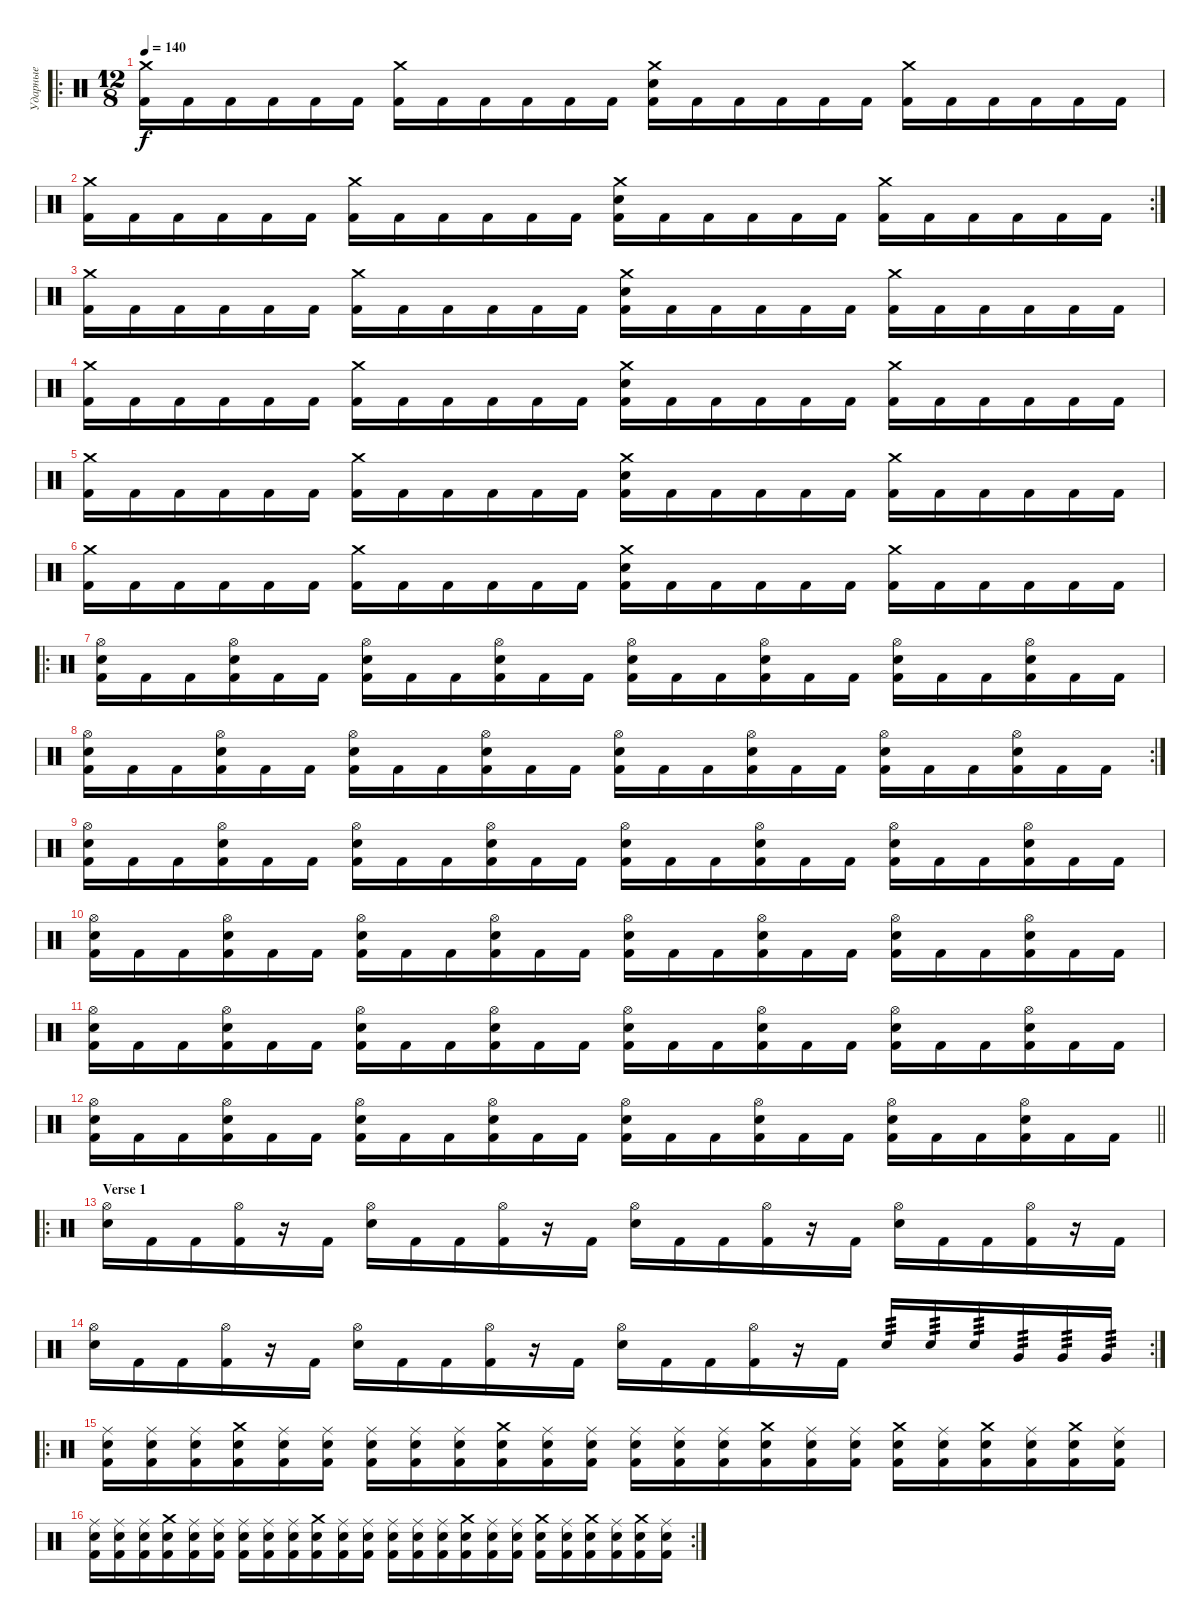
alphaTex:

\track ("Ударные" "Ударные") {instrument percussion}
\staff {score}
\articulation defaults
\ro
\ts (12 8)
\tempo 140
\clef neutral
\ks c
("Crash medium (hit)" "Kick (hit) 2").16{dy f} "Kick (hit) 2".16 "Kick (hit) 2".16 "Kick (hit) 2".16 "Kick (hit) 2".16 "Kick (hit) 2".16 ("Crash medium (hit)" "Kick (hit) 2").16 "Kick (hit) 2".16 "Kick (hit) 2".16 "Kick (hit) 2".16 "Kick (hit) 2".16 "Kick (hit) 2".16 ("Crash medium (hit)" "Electric Snare (hit)" "Kick (hit) 2").16 "Kick (hit) 2".16 "Kick (hit) 2".16 "Kick (hit) 2".16 "Kick (hit) 2".16 "Kick (hit) 2".16 ("Crash medium (hit)" "Kick (hit) 2").16 "Kick (hit) 2".16 "Kick (hit) 2".16 "Kick (hit) 2".16 "Kick (hit) 2".16 "Kick (hit) 2".16 |
\rc 2
("Crash medium (hit)" "Kick (hit) 2").16 "Kick (hit) 2".16 "Kick (hit) 2".16 "Kick (hit) 2".16 "Kick (hit) 2".16 "Kick (hit) 2".16 ("Crash medium (hit)" "Kick (hit) 2").16 "Kick (hit) 2".16 "Kick (hit) 2".16 "Kick (hit) 2".16 "Kick (hit) 2".16 "Kick (hit) 2".16 ("Crash medium (hit)" "Electric Snare (hit)" "Kick (hit) 2").16 "Kick (hit) 2".16 "Kick (hit) 2".16 "Kick (hit) 2".16 "Kick (hit) 2".16 "Kick (hit) 2".16 ("Crash medium (hit)" "Kick (hit) 2").16 "Kick (hit) 2".16 "Kick (hit) 2".16 "Kick (hit) 2".16 "Kick (hit) 2".16 "Kick (hit) 2".16 |
("Crash medium (hit)" "Kick (hit) 2").16 "Kick (hit) 2".16 "Kick (hit) 2".16 "Kick (hit) 2".16 "Kick (hit) 2".16 "Kick (hit) 2".16 ("Crash medium (hit)" "Kick (hit) 2").16 "Kick (hit) 2".16 "Kick (hit) 2".16 "Kick (hit) 2".16 "Kick (hit) 2".16 "Kick (hit) 2".16 ("Crash medium (hit)" "Electric Snare (hit)" "Kick (hit) 2").16 "Kick (hit) 2".16 "Kick (hit) 2".16 "Kick (hit) 2".16 "Kick (hit) 2".16 "Kick (hit) 2".16 ("Crash medium (hit)" "Kick (hit) 2").16 "Kick (hit) 2".16 "Kick (hit) 2".16 "Kick (hit) 2".16 "Kick (hit) 2".16 "Kick (hit) 2".16 |
("Crash medium (hit)" "Kick (hit) 2").16 "Kick (hit) 2".16 "Kick (hit) 2".16 "Kick (hit) 2".16 "Kick (hit) 2".16 "Kick (hit) 2".16 ("Crash medium (hit)" "Kick (hit) 2").16 "Kick (hit) 2".16 "Kick (hit) 2".16 "Kick (hit) 2".16 "Kick (hit) 2".16 "Kick (hit) 2".16 ("Crash medium (hit)" "Electric Snare (hit)" "Kick (hit) 2").16 "Kick (hit) 2".16 "Kick (hit) 2".16 "Kick (hit) 2".16 "Kick (hit) 2".16 "Kick (hit) 2".16 ("Crash medium (hit)" "Kick (hit) 2").16 "Kick (hit) 2".16 "Kick (hit) 2".16 "Kick (hit) 2".16 "Kick (hit) 2".16 "Kick (hit) 2".16 |
("Crash medium (hit)" "Kick (hit) 2").16 "Kick (hit) 2".16 "Kick (hit) 2".16 "Kick (hit) 2".16 "Kick (hit) 2".16 "Kick (hit) 2".16 ("Crash medium (hit)" "Kick (hit) 2").16 "Kick (hit) 2".16 "Kick (hit) 2".16 "Kick (hit) 2".16 "Kick (hit) 2".16 "Kick (hit) 2".16 ("Crash medium (hit)" "Electric Snare (hit)" "Kick (hit) 2").16 "Kick (hit) 2".16 "Kick (hit) 2".16 "Kick (hit) 2".16 "Kick (hit) 2".16 "Kick (hit) 2".16 ("Crash medium (hit)" "Kick (hit) 2").16 "Kick (hit) 2".16 "Kick (hit) 2".16 "Kick (hit) 2".16 "Kick (hit) 2".16 "Kick (hit) 2".16 |
("Crash medium (hit)" "Kick (hit) 2").16 "Kick (hit) 2".16 "Kick (hit) 2".16 "Kick (hit) 2".16 "Kick (hit) 2".16 "Kick (hit) 2".16 ("Crash medium (hit)" "Kick (hit) 2").16 "Kick (hit) 2".16 "Kick (hit) 2".16 "Kick (hit) 2".16 "Kick (hit) 2".16 "Kick (hit) 2".16 ("Crash medium (hit)" "Electric Snare (hit)" "Kick (hit) 2").16 "Kick (hit) 2".16 "Kick (hit) 2".16 "Kick (hit) 2".16 "Kick (hit) 2".16 "Kick (hit) 2".16 ("Crash medium (hit)" "Kick (hit) 2").16 "Kick (hit) 2".16 "Kick (hit) 2".16 "Kick (hit) 2".16 "Kick (hit) 2".16 "Kick (hit) 2".16 |
\ro
("Hi-Hat (open)" "Electric Snare (hit)" "Kick (hit) 2").16 "Kick (hit) 2".16 "Kick (hit) 2".16 ("Hi-Hat (open)" "Electric Snare (hit)" "Kick (hit) 2").16 "Kick (hit) 2".16 "Kick (hit) 2".16 ("Hi-Hat (open)" "Electric Snare (hit)" "Kick (hit) 2").16 "Kick (hit) 2".16 "Kick (hit) 2".16 ("Hi-Hat (open)" "Electric Snare (hit)" "Kick (hit) 2").16 "Kick (hit) 2".16 "Kick (hit) 2".16 ("Hi-Hat (open)" "Electric Snare (hit)" "Kick (hit) 2").16 "Kick (hit) 2".16 "Kick (hit) 2".16 ("Hi-Hat (open)" "Electric Snare (hit)" "Kick (hit) 2").16 "Kick (hit) 2".16 "Kick (hit) 2".16 ("Hi-Hat (open)" "Electric Snare (hit)" "Kick (hit) 2").16 "Kick (hit) 2".16 "Kick (hit) 2".16 ("Hi-Hat (open)" "Electric Snare (hit)" "Kick (hit) 2").16 "Kick (hit) 2".16 "Kick (hit) 2".16 |
\rc 2
("Hi-Hat (open)" "Electric Snare (hit)" "Kick (hit) 2").16 "Kick (hit) 2".16 "Kick (hit) 2".16 ("Hi-Hat (open)" "Electric Snare (hit)" "Kick (hit) 2").16 "Kick (hit) 2".16 "Kick (hit) 2".16 ("Hi-Hat (open)" "Electric Snare (hit)" "Kick (hit) 2").16 "Kick (hit) 2".16 "Kick (hit) 2".16 ("Hi-Hat (open)" "Electric Snare (hit)" "Kick (hit) 2").16 "Kick (hit) 2".16 "Kick (hit) 2".16 ("Hi-Hat (open)" "Electric Snare (hit)" "Kick (hit) 2").16 "Kick (hit) 2".16 "Kick (hit) 2".16 ("Hi-Hat (open)" "Electric Snare (hit)" "Kick (hit) 2").16 "Kick (hit) 2".16 "Kick (hit) 2".16 ("Hi-Hat (open)" "Electric Snare (hit)" "Kick (hit) 2").16 "Kick (hit) 2".16 "Kick (hit) 2".16 ("Hi-Hat (open)" "Electric Snare (hit)" "Kick (hit) 2").16 "Kick (hit) 2".16 "Kick (hit) 2".16 |
("Hi-Hat (open)" "Electric Snare (hit)" "Kick (hit) 2").16 "Kick (hit) 2".16 "Kick (hit) 2".16 ("Hi-Hat (open)" "Electric Snare (hit)" "Kick (hit) 2").16 "Kick (hit) 2".16 "Kick (hit) 2".16 ("Hi-Hat (open)" "Electric Snare (hit)" "Kick (hit) 2").16 "Kick (hit) 2".16 "Kick (hit) 2".16 ("Hi-Hat (open)" "Electric Snare (hit)" "Kick (hit) 2").16 "Kick (hit) 2".16 "Kick (hit) 2".16 ("Hi-Hat (open)" "Electric Snare (hit)" "Kick (hit) 2").16 "Kick (hit) 2".16 "Kick (hit) 2".16 ("Hi-Hat (open)" "Electric Snare (hit)" "Kick (hit) 2").16 "Kick (hit) 2".16 "Kick (hit) 2".16 ("Hi-Hat (open)" "Electric Snare (hit)" "Kick (hit) 2").16 "Kick (hit) 2".16 "Kick (hit) 2".16 ("Hi-Hat (open)" "Electric Snare (hit)" "Kick (hit) 2").16 "Kick (hit) 2".16 "Kick (hit) 2".16 |
("Hi-Hat (open)" "Electric Snare (hit)" "Kick (hit) 2").16 "Kick (hit) 2".16 "Kick (hit) 2".16 ("Hi-Hat (open)" "Electric Snare (hit)" "Kick (hit) 2").16 "Kick (hit) 2".16 "Kick (hit) 2".16 ("Hi-Hat (open)" "Electric Snare (hit)" "Kick (hit) 2").16 "Kick (hit) 2".16 "Kick (hit) 2".16 ("Hi-Hat (open)" "Electric Snare (hit)" "Kick (hit) 2").16 "Kick (hit) 2".16 "Kick (hit) 2".16 ("Hi-Hat (open)" "Electric Snare (hit)" "Kick (hit) 2").16 "Kick (hit) 2".16 "Kick (hit) 2".16 ("Hi-Hat (open)" "Electric Snare (hit)" "Kick (hit) 2").16 "Kick (hit) 2".16 "Kick (hit) 2".16 ("Hi-Hat (open)" "Electric Snare (hit)" "Kick (hit) 2").16 "Kick (hit) 2".16 "Kick (hit) 2".16 ("Hi-Hat (open)" "Electric Snare (hit)" "Kick (hit) 2").16 "Kick (hit) 2".16 "Kick (hit) 2".16 |
("Hi-Hat (open)" "Electric Snare (hit)" "Kick (hit) 2").16 "Kick (hit) 2".16 "Kick (hit) 2".16 ("Hi-Hat (open)" "Electric Snare (hit)" "Kick (hit) 2").16 "Kick (hit) 2".16 "Kick (hit) 2".16 ("Hi-Hat (open)" "Electric Snare (hit)" "Kick (hit) 2").16 "Kick (hit) 2".16 "Kick (hit) 2".16 ("Hi-Hat (open)" "Electric Snare (hit)" "Kick (hit) 2").16 "Kick (hit) 2".16 "Kick (hit) 2".16 ("Hi-Hat (open)" "Electric Snare (hit)" "Kick (hit) 2").16 "Kick (hit) 2".16 "Kick (hit) 2".16 ("Hi-Hat (open)" "Electric Snare (hit)" "Kick (hit) 2").16 "Kick (hit) 2".16 "Kick (hit) 2".16 ("Hi-Hat (open)" "Electric Snare (hit)" "Kick (hit) 2").16 "Kick (hit) 2".16 "Kick (hit) 2".16 ("Hi-Hat (open)" "Electric Snare (hit)" "Kick (hit) 2").16 "Kick (hit) 2".16 "Kick (hit) 2".16 |
\barLineRight lightlight
("Hi-Hat (open)" "Electric Snare (hit)" "Kick (hit) 2").16 "Kick (hit) 2".16 "Kick (hit) 2".16 ("Hi-Hat (open)" "Electric Snare (hit)" "Kick (hit) 2").16 "Kick (hit) 2".16 "Kick (hit) 2".16 ("Hi-Hat (open)" "Electric Snare (hit)" "Kick (hit) 2").16 "Kick (hit) 2".16 "Kick (hit) 2".16 ("Hi-Hat (open)" "Electric Snare (hit)" "Kick (hit) 2").16 "Kick (hit) 2".16 "Kick (hit) 2".16 ("Hi-Hat (open)" "Electric Snare (hit)" "Kick (hit) 2").16 "Kick (hit) 2".16 "Kick (hit) 2".16 ("Hi-Hat (open)" "Electric Snare (hit)" "Kick (hit) 2").16 "Kick (hit) 2".16 "Kick (hit) 2".16 ("Hi-Hat (open)" "Electric Snare (hit)" "Kick (hit) 2").16 "Kick (hit) 2".16 "Kick (hit) 2".16 ("Hi-Hat (open)" "Electric Snare (hit)" "Kick (hit) 2").16 "Kick (hit) 2".16 "Kick (hit) 2".16 |
\ro
\section ("" "Verse 1")
("Hi-Hat (open)" "Electric Snare (hit)").16 "Kick (hit) 2".16 "Kick (hit) 2".16 ("Hi-Hat (open)" "Kick (hit) 2").16 r.16 "Kick (hit) 2".16 ("Hi-Hat (open)" "Electric Snare (hit)").16 "Kick (hit) 2".16 "Kick (hit) 2".16 ("Hi-Hat (open)" "Kick (hit) 2").16 r.16 "Kick (hit) 2".16 ("Hi-Hat (open)" "Electric Snare (hit)").16 "Kick (hit) 2".16 "Kick (hit) 2".16 ("Hi-Hat (open)" "Kick (hit) 2").16 r.16 "Kick (hit) 2".16 ("Hi-Hat (open)" "Electric Snare (hit)").16 "Kick (hit) 2".16 "Kick (hit) 2".16 ("Hi-Hat (open)" "Kick (hit) 2").16 r.16 "Kick (hit) 2".16 |
\rc 2
("Hi-Hat (open)" "Electric Snare (hit)").16 "Kick (hit) 2".16 "Kick (hit) 2".16 ("Hi-Hat (open)" "Kick (hit) 2").16 r.16 "Kick (hit) 2".16 ("Hi-Hat (open)" "Electric Snare (hit)").16 "Kick (hit) 2".16 "Kick (hit) 2".16 ("Hi-Hat (open)" "Kick (hit) 2").16 r.16 "Kick (hit) 2".16 ("Hi-Hat (open)" "Electric Snare (hit)").16 "Kick (hit) 2".16 "Kick (hit) 2".16 ("Hi-Hat (open)" "Kick (hit) 2").16 r.16 "Kick (hit) 2".16 "Electric Snare (hit)".16{tp 3} "Electric Snare (hit)".16{tp 3} "Electric Snare (hit)".16{tp 3} "Very Low Tom (hit)".16{tp 3} "Very Low Tom (hit)".16{tp 3} "Very Low Tom (hit)".16{tp 3} |
\ro
("Ride (middle)" "Electric Snare (hit)" "Kick (hit) 2").16 ("Ride (middle)" "Electric Snare (hit)" "Kick (hit) 2").16 ("Ride (middle)" "Electric Snare (hit)" "Kick (hit) 2").16 ("Crash medium (hit)" "Electric Snare (hit)" "Kick (hit) 2").16 ("Ride (middle)" "Electric Snare (hit)" "Kick (hit) 2").16 ("Ride (middle)" "Electric Snare (hit)" "Kick (hit) 2").16 ("Ride (middle)" "Electric Snare (hit)" "Kick (hit) 2").16 ("Ride (middle)" "Electric Snare (hit)" "Kick (hit) 2").16 ("Ride (middle)" "Electric Snare (hit)" "Kick (hit) 2").16 ("Crash medium (hit)" "Electric Snare (hit)" "Kick (hit) 2").16 ("Ride (middle)" "Electric Snare (hit)" "Kick (hit) 2").16 ("Ride (middle)" "Electric Snare (hit)" "Kick (hit) 2").16 ("Ride (middle)" "Electric Snare (hit)" "Kick (hit) 2").16 ("Ride (middle)" "Electric Snare (hit)" "Kick (hit) 2").16 ("Ride (middle)" "Electric Snare (hit)" "Kick (hit) 2").16 ("Crash medium (hit)" "Electric Snare (hit)" "Kick (hit) 2").16 ("Ride (middle)" "Electric Snare (hit)" "Kick (hit) 2").16 ("Ride (middle)" "Electric Snare (hit)" "Kick (hit) 2").16 ("Crash medium (hit)" "Electric Snare (hit)" "Kick (hit) 2").16 ("Ride (middle)" "Electric Snare (hit)" "Kick (hit) 2").16 ("Crash medium (hit)" "Electric Snare (hit)" "Kick (hit) 2").16 ("Ride (middle)" "Electric Snare (hit)" "Kick (hit) 2").16 ("Crash medium (hit)" "Electric Snare (hit)" "Kick (hit) 2").16 ("Ride (middle)" "Electric Snare (hit)" "Kick (hit) 2").16 |
\rc 2
("Ride (middle)" "Electric Snare (hit)" "Kick (hit) 2").16 ("Ride (middle)" "Electric Snare (hit)" "Kick (hit) 2").16 ("Ride (middle)" "Electric Snare (hit)" "Kick (hit) 2").16 ("Crash medium (hit)" "Electric Snare (hit)" "Kick (hit) 2").16 ("Ride (middle)" "Electric Snare (hit)" "Kick (hit) 2").16 ("Ride (middle)" "Electric Snare (hit)" "Kick (hit) 2").16 ("Ride (middle)" "Electric Snare (hit)" "Kick (hit) 2").16 ("Ride (middle)" "Electric Snare (hit)" "Kick (hit) 2").16 ("Ride (middle)" "Electric Snare (hit)" "Kick (hit) 2").16 ("Crash medium (hit)" "Electric Snare (hit)" "Kick (hit) 2").16 ("Ride (middle)" "Electric Snare (hit)" "Kick (hit) 2").16 ("Ride (middle)" "Electric Snare (hit)" "Kick (hit) 2").16 ("Ride (middle)" "Electric Snare (hit)" "Kick (hit) 2").16 ("Ride (middle)" "Electric Snare (hit)" "Kick (hit) 2").16 ("Ride (middle)" "Electric Snare (hit)" "Kick (hit) 2").16 ("Crash medium (hit)" "Electric Snare (hit)" "Kick (hit) 2").16 ("Ride (middle)" "Electric Snare (hit)" "Kick (hit) 2").16 ("Ride (middle)" "Electric Snare (hit)" "Kick (hit) 2").16 ("Crash medium (hit)" "Electric Snare (hit)" "Kick (hit) 2").16 ("Ride (middle)" "Electric Snare (hit)" "Kick (hit) 2").16 ("Crash medium (hit)" "Electric Snare (hit)" "Kick (hit) 2").16 ("Ride (middle)" "Electric Snare (hit)" "Kick (hit) 2").16 ("Crash medium (hit)" "Electric Snare (hit)" "Kick (hit) 2").16 ("Ride (middle)" "Electric Snare (hit)" "Kick (hit) 2").16
